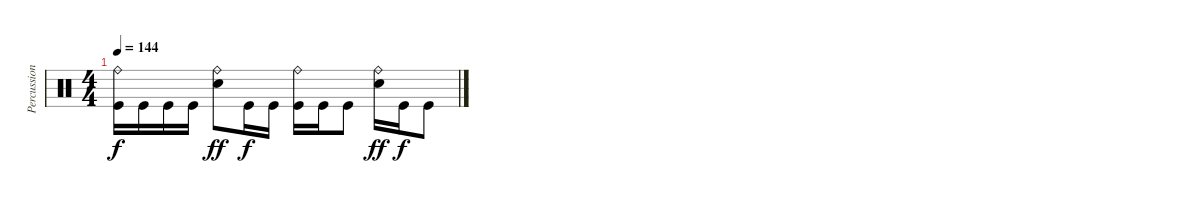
\track ("Percussions" "Percussion") {instrument percussion}
\staff {score}
\articulation defaults
\ts (4 4)
\tempo 144
\clef neutral
\ks c
("Kick (hit)" "Ride (bell)").16{dy f} "Kick (hit)".16 "Kick (hit)".16 "Kick (hit)".16 ("Electric Snare (hit)" "Ride (bell)").8{dy ff} "Kick (hit)".16{dy f} "Kick (hit)".16 ("Kick (hit)" "Ride (bell)").16 "Kick (hit)".16 "Kick (hit)".8 ("Electric Snare (hit)" "Ride (bell)").16{dy ff} "Kick (hit)".16{dy f} "Kick (hit)".8
